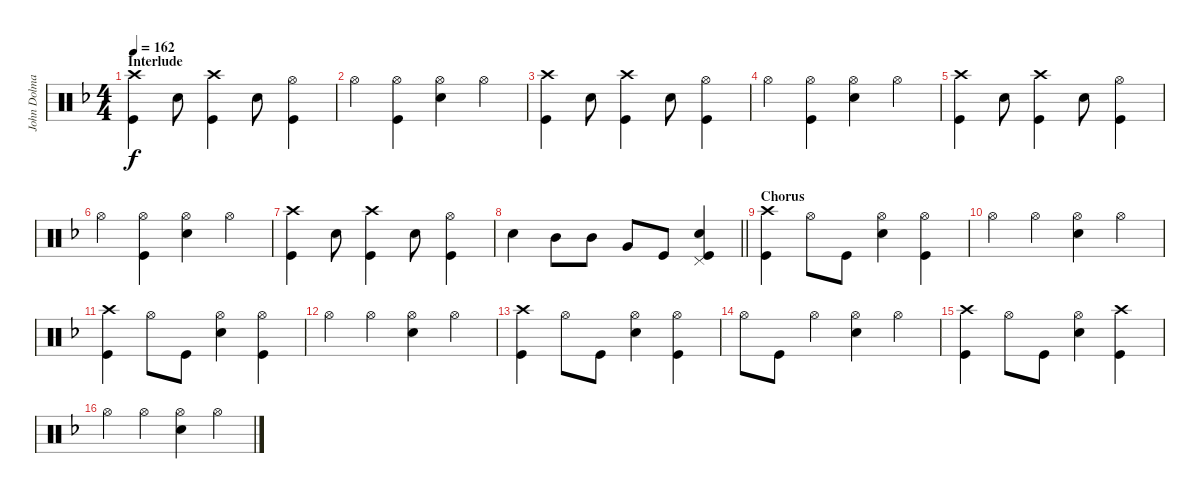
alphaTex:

\track ("John Dolmayan" "John Dolma") {instrument percussion}
\staff {score}
\articulation defaults
\ts (4 4)
\section ("" "Interlude")
\tempo 162
\clef neutral
\ks dminor
("Crash high (hit)" "Kick (hit)").4{dy f} "Snare (hit) 2".8 ("Crash high (hit)" "Kick (hit)").4 "Snare (hit) 2".8 ("Hi-Hat (open)" "Kick (hit)").4 |
"Hi-Hat (open)".4 ("Hi-Hat (open)" "Kick (hit)").4 ("Hi-Hat (open)" "Snare (hit) 2").4 "Hi-Hat (open)".4 |
("Crash high (hit)" "Kick (hit)").4 "Snare (hit) 2".8 ("Crash high (hit)" "Kick (hit)").4 "Snare (hit) 2".8 ("Hi-Hat (open)" "Kick (hit)").4 |
"Hi-Hat (open)".4 ("Hi-Hat (open)" "Kick (hit)").4 ("Hi-Hat (open)" "Snare (hit) 2").4 "Hi-Hat (open)".4 |
("Crash high (hit)" "Kick (hit)").4 "Snare (hit) 2".8 ("Crash high (hit)" "Kick (hit)").4 "Snare (hit) 2".8 ("Hi-Hat (open)" "Kick (hit)").4 |
"Hi-Hat (open)".4 ("Hi-Hat (open)" "Kick (hit)").4 ("Hi-Hat (open)" "Snare (hit) 2").4 "Hi-Hat (open)".4 |
("Crash high (hit)" "Kick (hit)").4 "Snare (hit) 2".8 ("Crash high (hit)" "Kick (hit)").4 "Snare (hit) 2".8 ("Hi-Hat (open)" "Kick (hit)").4 |
\barLineRight lightlight "Snare (hit) 2".4 "Mid Tom (hit)".8 "Mid Tom (hit)".8 "Very Low Tom (hit)".8 "Kick (hit)".8
("Snare (hit) 2" "Pedal Hi-Hat (hit)" "Kick (hit)").4 |
\section ("" "Chorus")
("Crash high (hit)" "Kick (hit)").4 "Hi-Hat (open)".8 "Kick (hit)".8 ("Hi-Hat (open)" "Snare (hit) 2").4 ("Kick (hit)" "Hi-Hat (open)").4 |
"Hi-Hat (open)".4 "Hi-Hat (open)".4 ("Hi-Hat (open)" "Snare (hit) 2").4 "Hi-Hat (open)".4 |
("Crash high (hit)" "Kick (hit)").4 "Hi-Hat (open)".8 "Kick (hit)".8 ("Hi-Hat (open)" "Snare (hit) 2").4 ("Kick (hit)" "Hi-Hat (open)").4 |
"Hi-Hat (open)".4 "Hi-Hat (open)".4 ("Hi-Hat (open)" "Snare (hit) 2").4 "Hi-Hat (open)".4 |
("Crash high (hit)" "Kick (hit)").4 "Hi-Hat (open)".8 "Kick (hit)".8 ("Hi-Hat (open)" "Snare (hit) 2").4 ("Kick (hit)" "Hi-Hat (open)").4 |
"Hi-Hat (open)".8 "Kick (hit)".8 "Hi-Hat (open)".4 ("Hi-Hat (open)" "Snare (hit) 2").4 "Hi-Hat (open)".4 |
("Crash high (hit)" "Kick (hit)").4 "Hi-Hat (open)".8 "Kick (hit)".8 ("Hi-Hat (open)" "Snare (hit) 2").4 ("Kick (hit)" "Crash high (hit)").4 |
"Hi-Hat (open)".4 "Hi-Hat (open)".4 ("Hi-Hat (open)" "Snare (hit) 2").4 "Hi-Hat (open)".4
